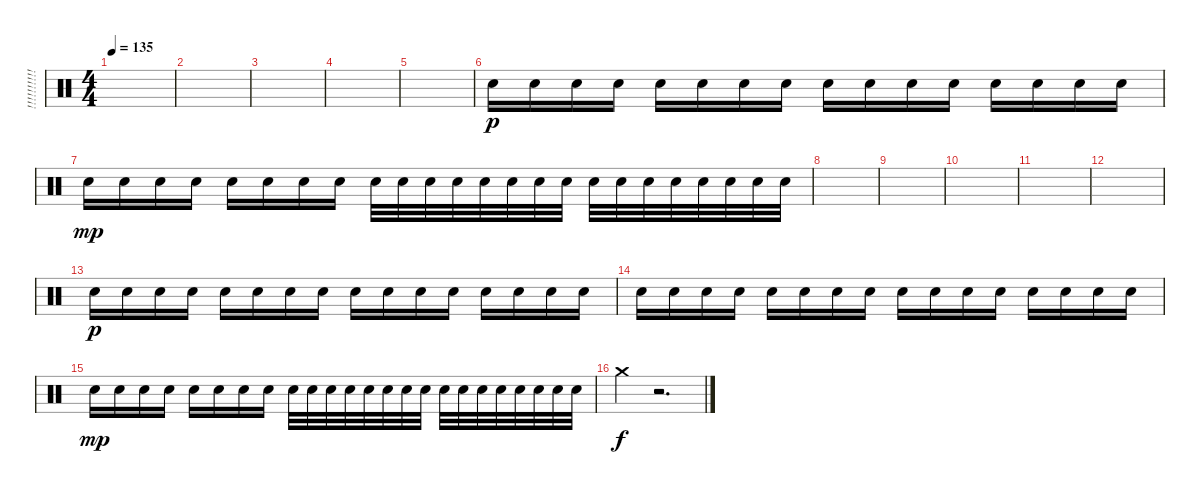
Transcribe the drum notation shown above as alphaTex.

\track ("!!!!!!!!!!!!!" "!!!!!!!!!!") {instrument percussion}
\staff {score}
\articulation defaults
\ts (4 4)
\tempo 135
\clef neutral
\ks c
|
|
|
|
|
"Electric Snare (hit)".16{dy p} "Electric Snare (hit)".16 "Electric Snare (hit)".16 "Electric Snare (hit)".16 "Electric Snare (hit)".16 "Electric Snare (hit)".16 "Electric Snare (hit)".16 "Electric Snare (hit)".16 "Electric Snare (hit)".16 "Electric Snare (hit)".16 "Electric Snare (hit)".16 "Electric Snare (hit)".16 "Electric Snare (hit)".16 "Electric Snare (hit)".16 "Electric Snare (hit)".16 "Electric Snare (hit)".16 |
"Electric Snare (hit)".16{dy mp} "Electric Snare (hit)".16 "Electric Snare (hit)".16 "Electric Snare (hit)".16 "Electric Snare (hit)".16 "Electric Snare (hit)".16 "Electric Snare (hit)".16 "Electric Snare (hit)".16 "Electric Snare (hit)".32 "Electric Snare (hit)".32 "Electric Snare (hit)".32 "Electric Snare (hit)".32 "Electric Snare (hit)".32 "Electric Snare (hit)".32 "Electric Snare (hit)".32 "Electric Snare (hit)".32 "Electric Snare (hit)".32 "Electric Snare (hit)".32 "Electric Snare (hit)".32 "Electric Snare (hit)".32 "Electric Snare (hit)".32 "Electric Snare (hit)".32 "Electric Snare (hit)".32 "Electric Snare (hit)".32 |
|
|
|
|
|
"Electric Snare (hit)".16{dy p} "Electric Snare (hit)".16 "Electric Snare (hit)".16 "Electric Snare (hit)".16 "Electric Snare (hit)".16 "Electric Snare (hit)".16 "Electric Snare (hit)".16 "Electric Snare (hit)".16 "Electric Snare (hit)".16 "Electric Snare (hit)".16 "Electric Snare (hit)".16 "Electric Snare (hit)".16 "Electric Snare (hit)".16 "Electric Snare (hit)".16 "Electric Snare (hit)".16 "Electric Snare (hit)".16 |
"Electric Snare (hit)".16 "Electric Snare (hit)".16 "Electric Snare (hit)".16 "Electric Snare (hit)".16 "Electric Snare (hit)".16 "Electric Snare (hit)".16 "Electric Snare (hit)".16 "Electric Snare (hit)".16 "Electric Snare (hit)".16 "Electric Snare (hit)".16 "Electric Snare (hit)".16 "Electric Snare (hit)".16 "Electric Snare (hit)".16 "Electric Snare (hit)".16 "Electric Snare (hit)".16 "Electric Snare (hit)".16 |
"Electric Snare (hit)".16{dy mp} "Electric Snare (hit)".16 "Electric Snare (hit)".16 "Electric Snare (hit)".16 "Electric Snare (hit)".16 "Electric Snare (hit)".16 "Electric Snare (hit)".16 "Electric Snare (hit)".16 "Electric Snare (hit)".32 "Electric Snare (hit)".32 "Electric Snare (hit)".32 "Electric Snare (hit)".32 "Electric Snare (hit)".32 "Electric Snare (hit)".32 "Electric Snare (hit)".32 "Electric Snare (hit)".32 "Electric Snare (hit)".32 "Electric Snare (hit)".32 "Electric Snare (hit)".32 "Electric Snare (hit)".32 "Electric Snare (hit)".32 "Electric Snare (hit)".32 "Electric Snare (hit)".32 "Electric Snare (hit)".32 |
"Crash medium (hit)".4{dy f} r.2{d}
